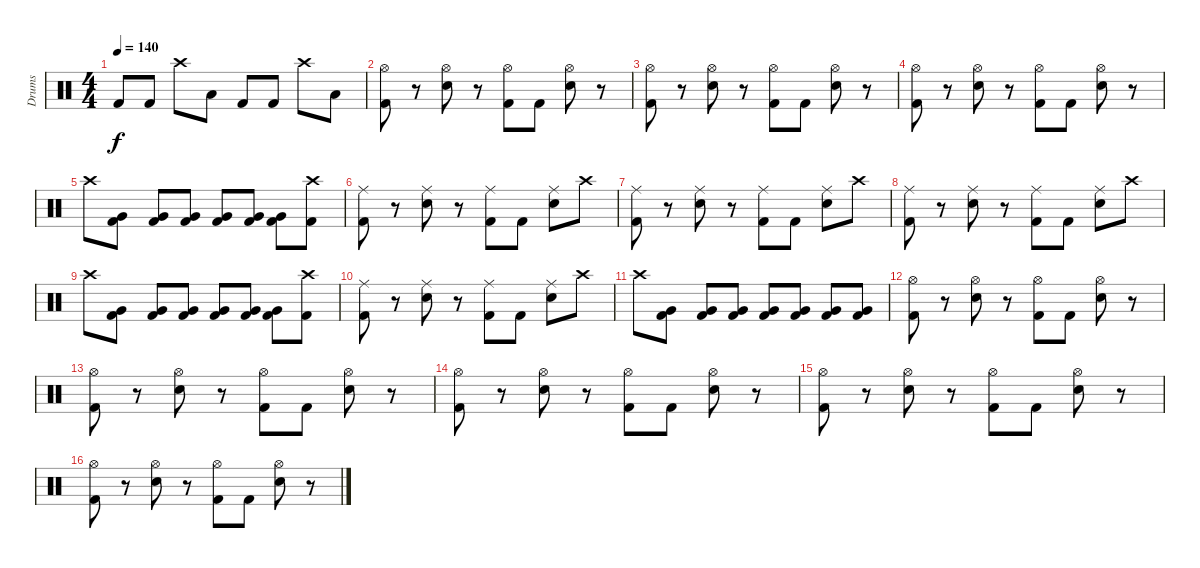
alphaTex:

\track ("Drums" "Drums") {instrument percussion}
\staff {score}
\articulation defaults
\ts (4 4)
\tempo 140
\clef neutral
\ks c "Kick (hit) 2".8{dy f} "Kick (hit) 2".8 "Crash high (hit)".8 "Low Tom (hit)".8 "Kick (hit) 2".8 "Kick (hit) 2".8 "Crash high (hit)".8 "Low Tom (hit)".8
|
("Hi-Hat (open)" "Kick (hit) 2").8 r.8 ("Hi-Hat (open)" "Snare (hit) 2").8 r.8 ("Hi-Hat (open)" "Kick (hit) 2").8 "Kick (hit) 2".8 ("Hi-Hat (open)" "Snare (hit) 2").8 r.8 |
("Hi-Hat (open)" "Kick (hit) 2").8 r.8 ("Hi-Hat (open)" "Snare (hit) 2").8 r.8 ("Hi-Hat (open)" "Kick (hit) 2").8 "Kick (hit) 2".8 ("Hi-Hat (open)" "Snare (hit) 2").8 r.8 |
("Hi-Hat (open)" "Kick (hit) 2").8 r.8 ("Hi-Hat (open)" "Snare (hit) 2").8 r.8 ("Hi-Hat (open)" "Kick (hit) 2").8 "Kick (hit) 2".8 ("Hi-Hat (open)" "Snare (hit) 2").8 r.8 |
"Crash high (hit)".8 ("Very Low Tom (hit)" "Kick (hit) 2").8 ("Very Low Tom (hit)" "Kick (hit) 2").8 ("Very Low Tom (hit)" "Kick (hit) 2").8 ("Very Low Tom (hit)" "Kick (hit) 2").8 ("Very Low Tom (hit)" "Kick (hit) 2").8 ("Very Low Tom (hit)" "Kick (hit) 2").8 ("Crash high (hit)" "Kick (hit) 2").8 |
("Ride (middle)" "Kick (hit) 2").8 r.8 ("Ride (middle)" "Snare (hit) 2").8 r.8 ("Ride (middle)" "Kick (hit) 2").8 "Kick (hit) 2".8 ("Ride (middle)" "Snare (hit) 2").8 "Crash high (hit)".8 |
("Ride (middle)" "Kick (hit) 2").8 r.8 ("Ride (middle)" "Snare (hit) 2").8 r.8 ("Ride (middle)" "Kick (hit) 2").8 "Kick (hit) 2".8 ("Ride (middle)" "Snare (hit) 2").8 "Crash high (hit)".8 |
("Ride (middle)" "Kick (hit) 2").8 r.8 ("Ride (middle)" "Snare (hit) 2").8 r.8 ("Ride (middle)" "Kick (hit) 2").8 "Kick (hit) 2".8 ("Ride (middle)" "Snare (hit) 2").8 "Crash high (hit)".8 |
"Crash high (hit)".8 ("Very Low Tom (hit)" "Kick (hit) 2").8 ("Very Low Tom (hit)" "Kick (hit) 2").8 ("Very Low Tom (hit)" "Kick (hit) 2").8 ("Very Low Tom (hit)" "Kick (hit) 2").8 ("Very Low Tom (hit)" "Kick (hit) 2").8 ("Very Low Tom (hit)" "Kick (hit) 2").8 ("Crash high (hit)" "Kick (hit) 2").8 |
("Ride (middle)" "Kick (hit) 2").8 r.8 ("Ride (middle)" "Snare (hit) 2").8 r.8 ("Ride (middle)" "Kick (hit) 2").8 "Kick (hit) 2".8 ("Ride (middle)" "Snare (hit) 2").8 "Crash high (hit)".8 |
"Crash high (hit)".8 ("Very Low Tom (hit)" "Kick (hit) 2").8 ("Very Low Tom (hit)" "Kick (hit) 2").8 ("Very Low Tom (hit)" "Kick (hit) 2").8 ("Very Low Tom (hit)" "Kick (hit) 2").8 ("Very Low Tom (hit)" "Kick (hit) 2").8 ("Very Low Tom (hit)" "Kick (hit) 2").8 ("Very Low Tom (hit)" "Kick (hit) 2").8 |
("Hi-Hat (open)" "Kick (hit) 2").8 r.8 ("Hi-Hat (open)" "Snare (hit) 2").8 r.8 ("Hi-Hat (open)" "Kick (hit) 2").8 "Kick (hit) 2".8 ("Hi-Hat (open)" "Snare (hit) 2").8 r.8 |
("Hi-Hat (open)" "Kick (hit) 2").8 r.8 ("Hi-Hat (open)" "Snare (hit) 2").8 r.8 ("Hi-Hat (open)" "Kick (hit) 2").8 "Kick (hit) 2".8 ("Hi-Hat (open)" "Snare (hit) 2").8 r.8 |
("Hi-Hat (open)" "Kick (hit) 2").8 r.8 ("Hi-Hat (open)" "Snare (hit) 2").8 r.8 ("Hi-Hat (open)" "Kick (hit) 2").8 "Kick (hit) 2".8 ("Hi-Hat (open)" "Snare (hit) 2").8 r.8 |
("Hi-Hat (open)" "Kick (hit) 2").8 r.8 ("Hi-Hat (open)" "Snare (hit) 2").8 r.8 ("Hi-Hat (open)" "Kick (hit) 2").8 "Kick (hit) 2".8 ("Hi-Hat (open)" "Snare (hit) 2").8 r.8 |
("Hi-Hat (open)" "Kick (hit) 2").8 r.8 ("Hi-Hat (open)" "Snare (hit) 2").8 r.8 ("Hi-Hat (open)" "Kick (hit) 2").8 "Kick (hit) 2".8 ("Hi-Hat (open)" "Snare (hit) 2").8 r.8
